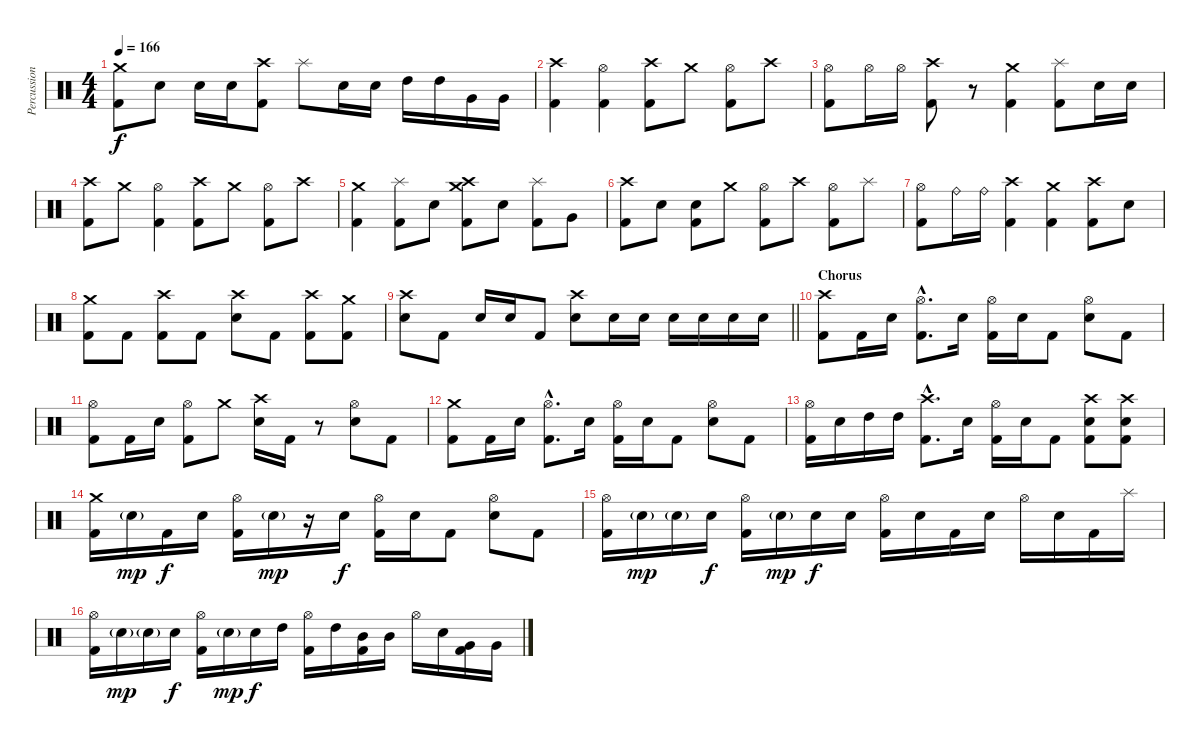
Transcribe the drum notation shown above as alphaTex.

\track ("Percussion" "Percussion") {instrument percussion}
\staff {score}
\articulation defaults
\ts (4 4)
\tempo 166
\clef neutral
\ks c
("Crash medium (hit)" "Kick (hit) 2").8{dy f} "Electric Snare (hit)".8 "Electric Snare (hit)".16 "Electric Snare (hit)".16 ("Crash high (hit)" "Kick (hit) 2").8 "Splash (hit)".8 "Electric Snare (hit)".16 "Electric Snare (hit)".16 "High Tom (hit)".16 "High Tom (hit)".16 "Very Low Tom (hit)".16 "Very Low Tom (hit)".16 |
("Crash high (hit)" "Kick (hit) 2").4 ("Hi-Hat (open)" "Kick (hit) 2").4 ("Crash high (hit)" "Kick (hit) 2").8 "Crash medium (hit)".8 ("Hi-Hat (open)" "Kick (hit) 2").8 "Crash high (hit)".8 |
("Hi-Hat (open)" "Kick (hit) 2").8 "Hi-Hat (open)".16 "Hi-Hat (open)".16 ("Crash high (hit)" "Kick (hit) 2").8 r.8 ("Crash medium (hit)" "Kick (hit) 2").4 ("Splash (hit)" "Kick (hit) 2").8 "Electric Snare (hit)".16 "Electric Snare (hit)".16 |
("Crash high (hit)" "Kick (hit) 2").8 "Crash medium (hit)".8 ("Hi-Hat (open)" "Kick (hit) 2").4 ("Crash high (hit)" "Kick (hit) 2").8 "Crash medium (hit)".8 ("Hi-Hat (open)" "Kick (hit) 2").8 "Crash high (hit)".8 |
("Crash medium (hit)" "Kick (hit) 2").4 ("Splash (hit)" "Kick (hit) 2").8 "Electric Snare (hit)".8 ("Crash high (hit)" "Crash medium (hit)" "Kick (hit) 2").8 "Electric Snare (hit)".8 ("Splash (hit)" "Kick (hit) 2").8 "Very Low Tom (hit)".8 |
("Crash high (hit)" "Kick (hit) 2").8 "Electric Snare (hit)".8 ("Electric Snare (hit)" "Kick (hit) 2").8 "Crash medium (hit)".8 ("Hi-Hat (open)" "Kick (hit) 2").8 "Crash high (hit)".8 ("Hi-Hat (open)" "Kick (hit) 2").8 "Splash (hit)".8 |
("Hi-Hat (open)" "Kick (hit) 2").8 "Ride (bell)".16 "Ride (bell)".16 ("Crash high (hit)" "Kick (hit) 2").4 ("Crash medium (hit)" "Kick (hit) 2").4 ("Crash high (hit)" "Kick (hit) 2").8 "Electric Snare (hit)".8 |
("Crash medium (hit)" "Kick (hit) 2").8 "Kick (hit) 2".8 ("Crash high (hit)" "Kick (hit) 2").8 "Kick (hit) 2".8 ("Crash high (hit)" "Electric Snare (hit)").8 "Kick (hit) 2".8 ("Crash high (hit)" "Kick (hit) 2").8 ("Crash medium (hit)" "Kick (hit) 2").8 |
\barLineRight lightlight
("Crash high (hit)" "Electric Snare (hit)").8 "Kick (hit) 2".8 "Electric Snare (hit)".16 "Electric Snare (hit)".16 "Kick (hit) 2".8 ("Crash high (hit)" "Electric Snare (hit)").8 "Electric Snare (hit)".16 "Electric Snare (hit)".16 "Electric Snare (hit)".16 "Electric Snare (hit)".16 "Electric Snare (hit)".16 "Electric Snare (hit)".16 |
\section ("" "Chorus")
("Crash high (hit)" "Kick (hit) 2").8 "Kick (hit) 2".16 "Electric Snare (hit)".16 ("Hi-Hat (open)"{hac} "Kick (hit) 2"{hac}).8{d} "Electric Snare (hit)".16 ("Hi-Hat (open)" "Kick (hit) 2").16 "Electric Snare (hit)".16 "Kick (hit) 2".8 ("Hi-Hat (open)" "Electric Snare (hit)").8 "Kick (hit) 2".8 |
("Hi-Hat (open)" "Kick (hit) 2").8 "Kick (hit) 2".16 "Electric Snare (hit)".16 ("Hi-Hat (open)" "Kick (hit) 2").8 "Crash medium (hit)".8 ("Crash high (hit)" "Electric Snare (hit)").16 "Kick (hit) 2".16 r.8 ("Hi-Hat (open)" "Electric Snare (hit)").8 "Kick (hit) 2".8 |
("Crash medium (hit)" "Kick (hit) 2").8 "Kick (hit) 2".16 "Electric Snare (hit)".16 ("Hi-Hat (open)"{hac} "Kick (hit) 2"{hac}).8{d} "Electric Snare (hit)".16 ("Hi-Hat (open)" "Kick (hit) 2").16 "Electric Snare (hit)".16 "Kick (hit) 2".8 ("Hi-Hat (open)" "Electric Snare (hit)").8 "Kick (hit) 2".8 |
("Hi-Hat (open)" "Kick (hit) 2").16 "Electric Snare (hit)".16 "High Tom (hit)".16 "High Tom (hit)".16 ("Crash high (hit)"{hac} "Kick (hit) 2"{hac}).8{d} "Electric Snare (hit)".16 ("Hi-Hat (open)" "Kick (hit) 2").16 "Electric Snare (hit)".16 "Kick (hit) 2".8 ("Crash high (hit)" "Electric Snare (hit)" "Kick (hit) 2").8 ("Crash high (hit)" "Electric Snare (hit)" "Kick (hit) 2").8 |
("Crash medium (hit)" "Kick (hit) 2").16 "Electric Snare (hit)"{g}.16{dy mp} "Kick (hit) 2".16{dy f} "Electric Snare (hit)".16 ("Hi-Hat (open)" "Kick (hit) 2").16 "Electric Snare (hit)"{g}.16{dy mp} r.16 "Electric Snare (hit)".16{dy f} ("Hi-Hat (open)" "Kick (hit) 2").16 "Electric Snare (hit)".16 "Kick (hit) 2".8 ("Hi-Hat (open)" "Electric Snare (hit)").8 "Kick (hit) 2".8 |
("Hi-Hat (open)" "Kick (hit) 2").16 "Electric Snare (hit)"{g}.16{dy mp} "Electric Snare (hit)"{g}.16 "Electric Snare (hit)".16{dy f} ("Hi-Hat (open)" "Kick (hit) 2").16 "Electric Snare (hit)"{g}.16{dy mp} "Electric Snare (hit)".16{dy f} "Electric Snare (hit)".16 ("Hi-Hat (open)" "Kick (hit) 2").16 "Electric Snare (hit)".16 "Kick (hit) 2".16 "Electric Snare (hit)".16 "Hi-Hat (open)".16 "Electric Snare (hit)".16 "Kick (hit) 2".16 "Splash (hit)".16 |
("Hi-Hat (open)" "Kick (hit) 2").16 "Electric Snare (hit)"{g}.16{dy mp} "Electric Snare (hit)"{g}.16 "Electric Snare (hit)".16{dy f} ("Hi-Hat (open)" "Kick (hit) 2").16 "Electric Snare (hit)"{g}.16{dy mp} "Electric Snare (hit)".16{dy f} "High Tom (hit)".16 ("Hi-Hat (open)" "Kick (hit) 2").16 "High Tom (hit)".16 ("Mid Tom (hit)" "Kick (hit) 2").16 "Mid Tom (hit)".16 "Hi-Hat (open)".16 "Electric Snare (hit)".16 ("Very Low Tom (hit)" "Kick (hit) 2").16 "Very Low Tom (hit)".16
